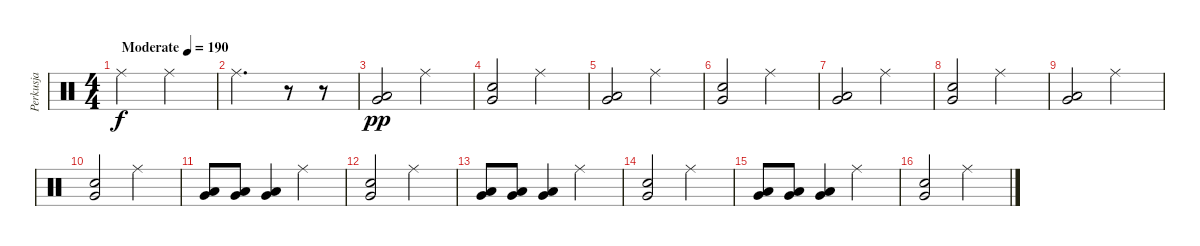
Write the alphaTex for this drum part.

\track ("Perkusja" "Perkusja") {instrument percussion}
\staff {score}
\articulation defaults
\ts (4 4)
\tempo (190 "Moderate")
\clef neutral
\ks c "Ride (middle)".2{dy f} "Ride (middle)".2
|
"Ride (middle)".2{d} r.8 r.8 |
("Very Low Tom (hit)" "Low Floor Tom (hit)").2{dy pp} "Ride (middle)".2 |
("Snare (hit) 2" "Very Low Tom (hit)").2 "Ride (middle)".2 |
("Very Low Tom (hit)" "Low Floor Tom (hit)").2 "Ride (middle)".2 |
("Snare (hit) 2" "Very Low Tom (hit)").2 "Ride (middle)".2 |
("Very Low Tom (hit)" "Low Floor Tom (hit)").2 "Ride (middle)".2 |
("Snare (hit) 2" "Very Low Tom (hit)").2 "Ride (middle)".2 |
("Very Low Tom (hit)" "Low Floor Tom (hit)").2 "Ride (middle)".2 |
("Snare (hit) 2" "Very Low Tom (hit)").2 "Ride (middle)".2 |
("Very Low Tom (hit)" "Low Floor Tom (hit)").8 ("Very Low Tom (hit)" "Low Floor Tom (hit)").8 ("Very Low Tom (hit)" "Low Floor Tom (hit)").4 "Ride (middle)".2 |
("Snare (hit) 2" "Very Low Tom (hit)").2 "Ride (middle)".2 |
("Very Low Tom (hit)" "Low Floor Tom (hit)").8 ("Very Low Tom (hit)" "Low Floor Tom (hit)").8 ("Very Low Tom (hit)" "Low Floor Tom (hit)").4 "Ride (middle)".2 |
("Snare (hit) 2" "Very Low Tom (hit)").2 "Ride (middle)".2 |
("Very Low Tom (hit)" "Low Floor Tom (hit)").8 ("Very Low Tom (hit)" "Low Floor Tom (hit)").8 ("Very Low Tom (hit)" "Low Floor Tom (hit)").4 "Ride (middle)".2 |
("Snare (hit) 2" "Very Low Tom (hit)").2 "Ride (middle)".2
